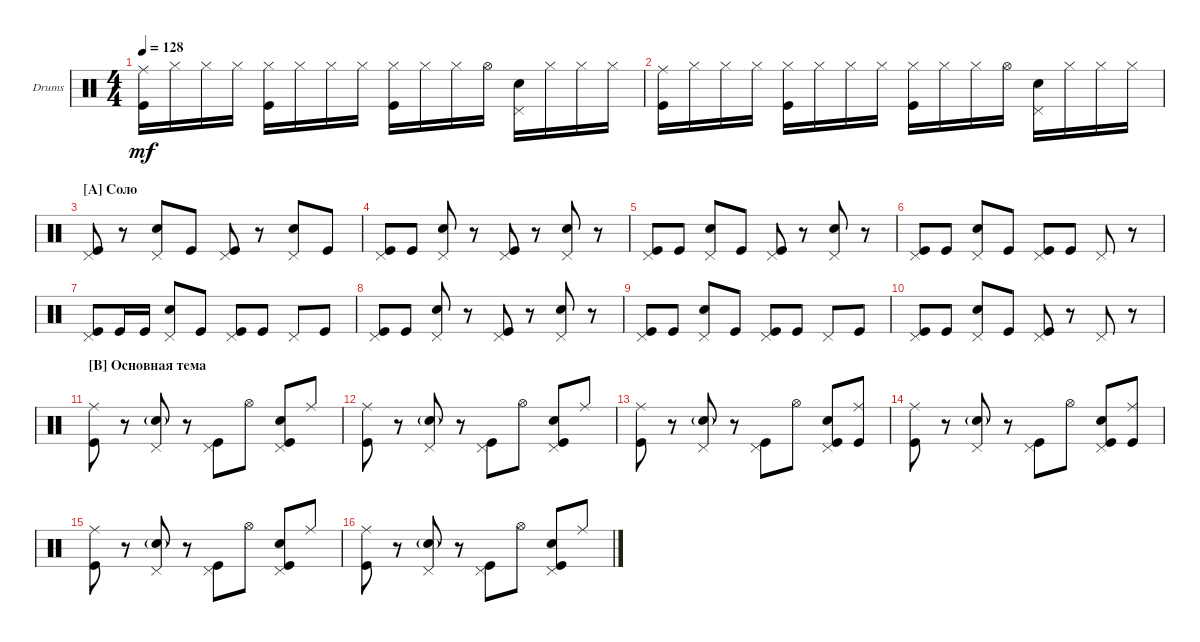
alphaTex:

\defaultSystemsLayout 4
\bracketExtendMode groupsimilarinstruments
\firstSystemTrackNameOrientation horizontal
\otherSystemsTrackNameOrientation horizontal
\track ("Drumkit" "Drums") {instrument percussion}
\staff {score}
\articulation defaults
\ts (4 4)
\tempo 128
\clef neutral
\ks c
("Kick (hit)" "Ride (middle)").16{dy mf} "Hi-Hat (closed)".16 "Hi-Hat (closed)".16 "Hi-Hat (closed)".16 ("Kick (hit)" "Hi-Hat (closed)").16 "Hi-Hat (closed)".16 "Hi-Hat (closed)".16 "Hi-Hat (closed)".16 ("Kick (hit)" "Hi-Hat (closed)").16 "Hi-Hat (closed)".16 "Hi-Hat (closed)".16 "Hi-Hat (open)".16 ("Snare (hit) 2" "Pedal Hi-Hat (hit)").16 "Hi-Hat (closed)".16 "Hi-Hat (closed)".16 "Hi-Hat (closed)".16 |
("Kick (hit)" "Ride (middle)").16 "Hi-Hat (closed)".16 "Hi-Hat (closed)".16 "Hi-Hat (closed)".16 ("Kick (hit)" "Hi-Hat (closed)").16 "Hi-Hat (closed)".16 "Hi-Hat (closed)".16 "Hi-Hat (closed)".16 ("Kick (hit)" "Hi-Hat (closed)").16 "Hi-Hat (closed)".16 "Hi-Hat (closed)".16 "Hi-Hat (open)".16 ("Snare (hit) 2" "Pedal Hi-Hat (hit)").16 "Hi-Hat (closed)".16 "Hi-Hat (closed)".16 "Hi-Hat (closed)".16 |
\section ("A" "Соло")
("Kick (hit)" "Pedal Hi-Hat (hit)").8 r.8 ("Snare (hit) 2" "Pedal Hi-Hat (hit)").8 "Kick (hit)".8 ("Kick (hit)" "Pedal Hi-Hat (hit)").8 r.8 ("Snare (hit) 2" "Pedal Hi-Hat (hit)").8 "Kick (hit)".8 |
("Kick (hit)" "Pedal Hi-Hat (hit)").8 "Kick (hit)".8 ("Snare (hit) 2" "Pedal Hi-Hat (hit)").8 r.8 ("Kick (hit)" "Pedal Hi-Hat (hit)").8 r.8 ("Snare (hit) 2" "Pedal Hi-Hat (hit)").8 r.8 |
("Kick (hit)" "Pedal Hi-Hat (hit)").8 "Kick (hit)".8 ("Snare (hit) 2" "Pedal Hi-Hat (hit)").8 "Kick (hit)".8 ("Kick (hit)" "Pedal Hi-Hat (hit)").8 r.8 ("Snare (hit) 2" "Pedal Hi-Hat (hit)").8 r.8 |
("Kick (hit)" "Pedal Hi-Hat (hit)").8 "Kick (hit)".8 ("Snare (hit) 2" "Pedal Hi-Hat (hit)").8 "Kick (hit)".8 ("Kick (hit)" "Pedal Hi-Hat (hit)").8 "Kick (hit)".8 "Pedal Hi-Hat (hit)".8 r.8 |
("Kick (hit)" "Pedal Hi-Hat (hit)").8 "Kick (hit)".16 "Kick (hit)".16 ("Snare (hit) 2" "Pedal Hi-Hat (hit)").8 "Kick (hit)".8 ("Kick (hit)" "Pedal Hi-Hat (hit)").8 "Kick (hit)".8 "Pedal Hi-Hat (hit)".8 "Kick (hit)".8 |
("Kick (hit)" "Pedal Hi-Hat (hit)").8 "Kick (hit)".8 ("Snare (hit) 2" "Pedal Hi-Hat (hit)").8 r.8 ("Kick (hit)" "Pedal Hi-Hat (hit)").8 r.8 ("Snare (hit) 2" "Pedal Hi-Hat (hit)").8 r.8 |
("Kick (hit)" "Pedal Hi-Hat (hit)").8 "Kick (hit)".8 ("Snare (hit) 2" "Pedal Hi-Hat (hit)").8 "Kick (hit)".8 ("Kick (hit)" "Pedal Hi-Hat (hit)").8 "Kick (hit)".8 "Pedal Hi-Hat (hit)".8 "Kick (hit)".8 |
("Kick (hit)" "Pedal Hi-Hat (hit)").8 "Kick (hit)".8 ("Snare (hit) 2" "Pedal Hi-Hat (hit)").8 "Kick (hit)".8 ("Kick (hit)" "Pedal Hi-Hat (hit)").8 r.8 "Pedal Hi-Hat (hit)".8 r.8 |
\section ("B" "Основная тема")
("Kick (hit)" "Ride (middle)").8 r.8 ("Snare (hit) 2"{g} "Pedal Hi-Hat (hit)").8 r.8 ("Pedal Hi-Hat (hit)" "Kick (hit)").8 "Hi-Hat (open)".8 ("Kick (hit)" "Snare (hit) 2" "Pedal Hi-Hat (hit)").8 "Ride (middle)".8 |
("Kick (hit)" "Ride (middle)").8 r.8 ("Snare (hit) 2"{g} "Pedal Hi-Hat (hit)").8 r.8 ("Pedal Hi-Hat (hit)" "Kick (hit)").8 "Hi-Hat (open)".8 ("Kick (hit)" "Snare (hit) 2" "Pedal Hi-Hat (hit)").8 "Ride (middle)".8 |
("Kick (hit)" "Ride (middle)").8 r.8 ("Snare (hit) 2"{g} "Pedal Hi-Hat (hit)").8 r.8 ("Pedal Hi-Hat (hit)" "Kick (hit)").8 "Hi-Hat (open)".8 ("Kick (hit)" "Snare (hit) 2" "Pedal Hi-Hat (hit)").8 ("Kick (hit)" "Ride (middle)").8 |
("Kick (hit)" "Ride (middle)").8 r.8 ("Snare (hit) 2"{g} "Pedal Hi-Hat (hit)").8 r.8 ("Pedal Hi-Hat (hit)" "Kick (hit)").8 "Hi-Hat (open)".8 ("Kick (hit)" "Snare (hit) 2" "Pedal Hi-Hat (hit)").8 ("Kick (hit)" "Ride (middle)").8 |
("Kick (hit)" "Ride (middle)").8 r.8 ("Snare (hit) 2"{g} "Pedal Hi-Hat (hit)").8 r.8 ("Pedal Hi-Hat (hit)" "Kick (hit)").8 "Hi-Hat (open)".8 ("Kick (hit)" "Snare (hit) 2" "Pedal Hi-Hat (hit)").8 "Ride (middle)".8 |
("Kick (hit)" "Ride (middle)").8 r.8 ("Snare (hit) 2"{g} "Pedal Hi-Hat (hit)").8 r.8 ("Pedal Hi-Hat (hit)" "Kick (hit)").8 "Hi-Hat (open)".8 ("Kick (hit)" "Snare (hit) 2" "Pedal Hi-Hat (hit)").8 "Ride (middle)".8
